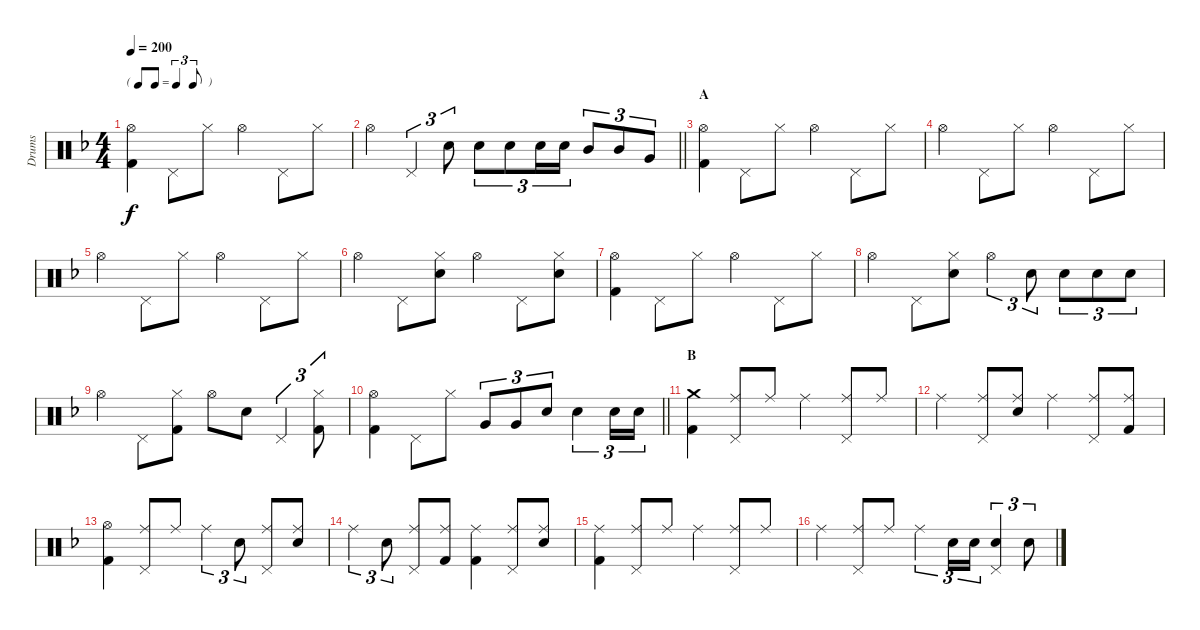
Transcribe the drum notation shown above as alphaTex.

\track ("Drums" "Drums") {instrument percussion}
\staff {score}
\articulation defaults
\ts (4 4)
\tf triplet8th
\tempo 200
\clef neutral
\ks f
("Hi-Hat (open)" "Kick (hit) 2").4{dy f} "Pedal Hi-Hat (hit)".8 "Hi-Hat (closed)".8 "Hi-Hat (open)".4 "Pedal Hi-Hat (hit)".8 "Hi-Hat (closed)".8 |
\barLineRight lightlight "Hi-Hat (open)".4 "Pedal Hi-Hat (hit)".4{tu (3 2)} "Snare (hit) 2".8{tu (3 2)} "Snare (hit) 2".8{tu (3 2)} "Snare (hit) 2".8{tu (3 2)} "Snare (hit) 2".16{tu (3 2)} "Snare (hit) 2".16{tu (3 2)} "Mid Tom (hit)".8{tu (3 2)} "Mid Tom (hit)".8{tu (3 2)} "Very Low Tom (hit)".8{tu (3 2)}
|
\section ("" "A")
("Hi-Hat (open)" "Kick (hit) 2").4 "Pedal Hi-Hat (hit)".8 "Hi-Hat (closed)".8 "Hi-Hat (open)".4 "Pedal Hi-Hat (hit)".8 "Hi-Hat (closed)".8 |
"Hi-Hat (open)".4 "Pedal Hi-Hat (hit)".8 "Hi-Hat (closed)".8 "Hi-Hat (open)".4 "Pedal Hi-Hat (hit)".8 "Hi-Hat (closed)".8 |
"Hi-Hat (open)".4 "Pedal Hi-Hat (hit)".8 "Hi-Hat (closed)".8 "Hi-Hat (open)".4 "Pedal Hi-Hat (hit)".8 "Hi-Hat (closed)".8 |
"Hi-Hat (open)".4 "Pedal Hi-Hat (hit)".8 ("Hi-Hat (closed)" "Snare (hit) 2").8 "Hi-Hat (open)".4 "Pedal Hi-Hat (hit)".8 ("Hi-Hat (closed)" "Snare (hit) 2").8 |
("Hi-Hat (open)" "Kick (hit) 2").4 "Pedal Hi-Hat (hit)".8 "Hi-Hat (closed)".8 "Hi-Hat (open)".4 "Pedal Hi-Hat (hit)".8 "Hi-Hat (closed)".8 |
"Hi-Hat (open)".4 "Pedal Hi-Hat (hit)".8 ("Hi-Hat (closed)" "Snare (hit) 2").8 "Hi-Hat (open)".4{tu (3 2)} "Snare (hit) 2".8{tu (3 2)} "Snare (hit) 2".8{tu (3 2)} "Snare (hit) 2".8{tu (3 2)} "Snare (hit) 2".8{tu (3 2)} |
"Hi-Hat (open)".4 "Pedal Hi-Hat (hit)".8 ("Hi-Hat (closed)" "Kick (hit) 2").8 "Hi-Hat (open)".8 "Snare (hit) 2".8 "Pedal Hi-Hat (hit)".4{tu (3 2)} ("Hi-Hat (closed)" "Kick (hit) 2").8{tu (3 2)} |
\barLineRight lightlight
("Hi-Hat (open)" "Kick (hit) 2").4 "Pedal Hi-Hat (hit)".8 "Hi-Hat (closed)".8 "Very Low Tom (hit)".8{tu (3 2)} "Very Low Tom (hit)".8{tu (3 2)} "Snare (hit) 2".8{tu (3 2)} "Snare (hit) 2".4{tu (3 2)} "Snare (hit) 2".16{tu (3 2)} "Snare (hit) 2".16{tu (3 2)} |
\section ("" "B")
("Crash medium (hit)" "Kick (hit) 2").4 ("Ride (middle)" "Pedal Hi-Hat (hit)").8 "Ride (middle)".8 "Ride (middle)".4 ("Ride (middle)" "Pedal Hi-Hat (hit)").8 "Ride (middle)".8 |
"Ride (middle)".4 ("Ride (middle)" "Pedal Hi-Hat (hit)").8 ("Ride (middle)" "Snare (hit) 2").8 "Ride (middle)".4 ("Ride (middle)" "Pedal Hi-Hat (hit)").8 ("Ride (middle)" "Kick (hit) 2").8 |
("Hi-Hat (open)" "Kick (hit) 2").4 ("Ride (middle)" "Pedal Hi-Hat (hit)").8 "Ride (middle)".8 "Ride (middle)".4{tu (3 2)} "Snare (hit) 2".8{tu (3 2)} ("Ride (middle)" "Pedal Hi-Hat (hit)").8 ("Ride (middle)" "Snare (hit) 2").8 |
"Ride (middle)".4{tu (3 2)} "Snare (hit) 2".8{tu (3 2)} ("Ride (middle)" "Pedal Hi-Hat (hit)").8 ("Ride (middle)" "Kick (hit) 2").8 ("Ride (middle)" "Kick (hit) 2").4 ("Ride (middle)" "Pedal Hi-Hat (hit)").8 ("Ride (middle)" "Snare (hit) 2").8 |
("Ride (middle)" "Kick (hit) 2").4 ("Ride (middle)" "Pedal Hi-Hat (hit)").8 "Ride (middle)".8 "Ride (middle)".4 ("Ride (middle)" "Pedal Hi-Hat (hit)").8 "Ride (middle)".8 |
"Ride (middle)".4 ("Ride (middle)" "Pedal Hi-Hat (hit)").8 "Ride (middle)".8 "Ride (middle)".4{tu (3 2)} "Snare (hit) 2".16{tu (3 2)} "Snare (hit) 2".16{tu (3 2)} ("Pedal Hi-Hat (hit)" "Snare (hit) 2").4{tu (3 2)} "Snare (hit) 2".8{tu (3 2)}
